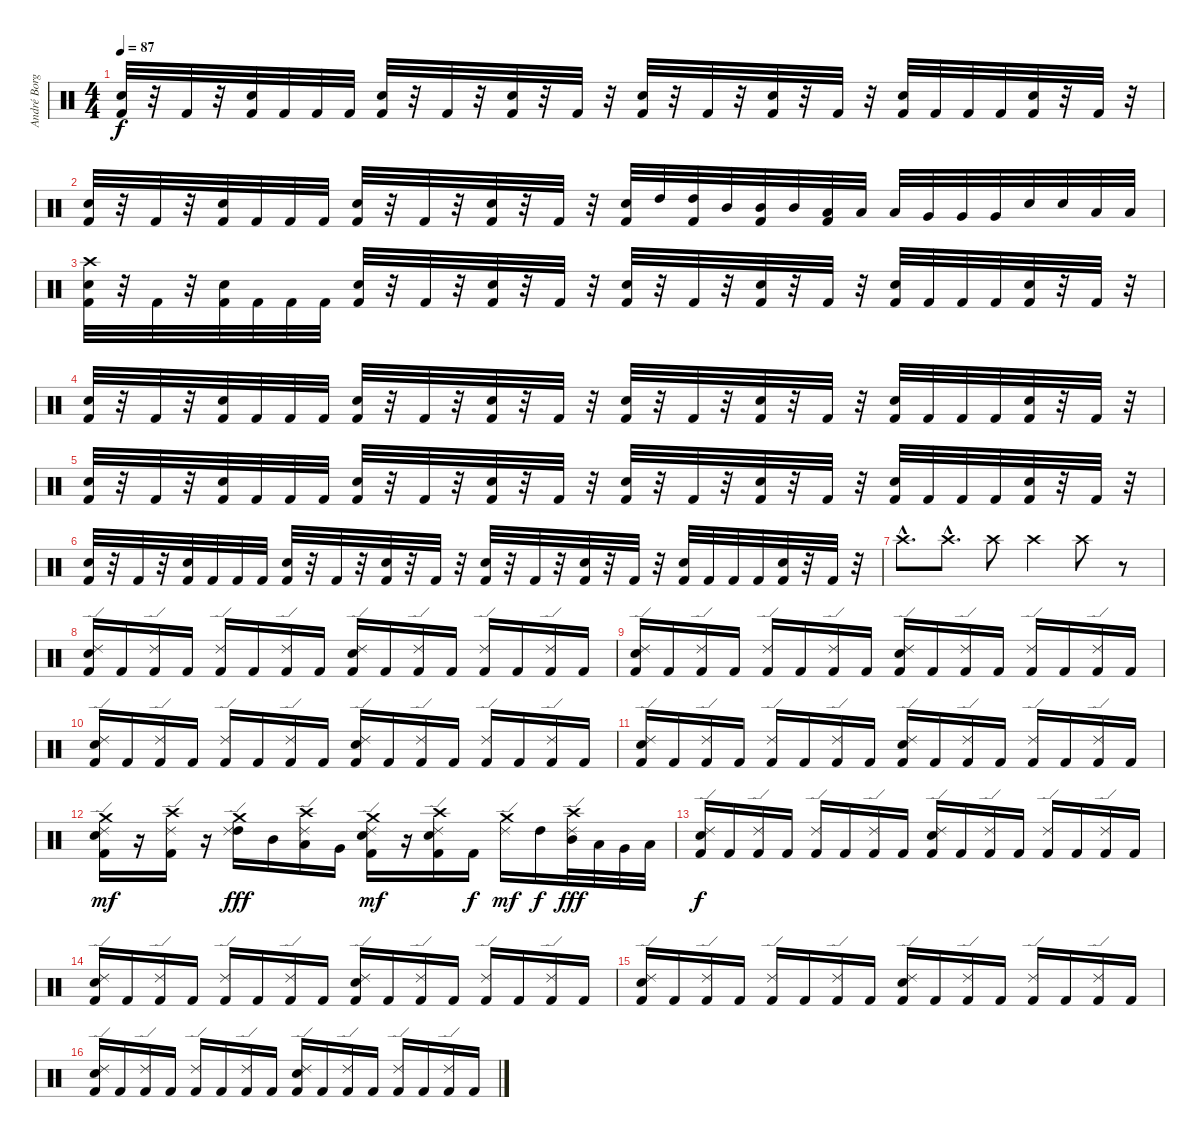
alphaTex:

\track ("André Borgman" "André Borg") {instrument percussion}
\staff {score}
\articulation defaults
\ts (4 4)
\tempo 87
\clef neutral
\ks c
("Electric Snare (hit)" "Kick (hit) 2").32{dy f} r.32 "Kick (hit) 2".32 r.32 ("Electric Snare (hit)" "Kick (hit) 2").32 "Kick (hit) 2".32 "Kick (hit) 2".32 "Kick (hit) 2".32 ("Electric Snare (hit)" "Kick (hit) 2").32 r.32 "Kick (hit) 2".32 r.32 ("Electric Snare (hit)" "Kick (hit) 2").32 r.32 "Kick (hit) 2".32 r.32 ("Electric Snare (hit)" "Kick (hit) 2").32 r.32 "Kick (hit) 2".32 r.32 ("Electric Snare (hit)" "Kick (hit) 2").32 r.32 "Kick (hit) 2".32 r.32 ("Electric Snare (hit)" "Kick (hit) 2").32 "Kick (hit) 2".32 "Kick (hit) 2".32 "Kick (hit) 2".32 ("Electric Snare (hit)" "Kick (hit) 2").32 r.32 "Kick (hit) 2".32 r.32 |
("Electric Snare (hit)" "Kick (hit) 2").32 r.32 "Kick (hit) 2".32 r.32 ("Electric Snare (hit)" "Kick (hit) 2").32 "Kick (hit) 2".32 "Kick (hit) 2".32 "Kick (hit) 2".32 ("Electric Snare (hit)" "Kick (hit) 2").32 r.32 "Kick (hit) 2".32 r.32 ("Electric Snare (hit)" "Kick (hit) 2").32 r.32 "Kick (hit) 2".32 r.32 ("Electric Snare (hit)" "Kick (hit) 2").32 "High Tom (hit)".32 ("High Tom (hit)" "Kick (hit) 2").32 "Mid Tom (hit)".32 ("Mid Tom (hit)" "Kick (hit) 2").32 "Mid Tom (hit)".32 ("Low Tom (hit)" "Kick (hit) 2").32 "Low Tom (hit)".32 "Low Tom (hit)".32 "Very Low Tom (hit)".32 "Very Low Tom (hit)".32 "Very Low Tom (hit)".32 "Electric Snare (hit)".32 "Electric Snare (hit)".32 "Low Floor Tom (hit)".32 "Low Floor Tom (hit)".32 |
("Crash high (hit)" "Electric Snare (hit)" "Kick (hit) 2").32 r.32 "Kick (hit) 2".32 r.32 ("Electric Snare (hit)" "Kick (hit) 2").32 "Kick (hit) 2".32 "Kick (hit) 2".32 "Kick (hit) 2".32 ("Electric Snare (hit)" "Kick (hit) 2").32 r.32 "Kick (hit) 2".32 r.32 ("Electric Snare (hit)" "Kick (hit) 2").32 r.32 "Kick (hit) 2".32 r.32 ("Electric Snare (hit)" "Kick (hit) 2").32 r.32 "Kick (hit) 2".32 r.32 ("Electric Snare (hit)" "Kick (hit) 2").32 r.32 "Kick (hit) 2".32 r.32 ("Electric Snare (hit)" "Kick (hit) 2").32 "Kick (hit) 2".32 "Kick (hit) 2".32 "Kick (hit) 2".32 ("Electric Snare (hit)" "Kick (hit) 2").32 r.32 "Kick (hit) 2".32 r.32 |
("Electric Snare (hit)" "Kick (hit) 2").32 r.32 "Kick (hit) 2".32 r.32 ("Electric Snare (hit)" "Kick (hit) 2").32 "Kick (hit) 2".32 "Kick (hit) 2".32 "Kick (hit) 2".32 ("Electric Snare (hit)" "Kick (hit) 2").32 r.32 "Kick (hit) 2".32 r.32 ("Electric Snare (hit)" "Kick (hit) 2").32 r.32 "Kick (hit) 2".32 r.32 ("Electric Snare (hit)" "Kick (hit) 2").32 r.32 "Kick (hit) 2".32 r.32 ("Electric Snare (hit)" "Kick (hit) 2").32 r.32 "Kick (hit) 2".32 r.32 ("Electric Snare (hit)" "Kick (hit) 2").32 "Kick (hit) 2".32 "Kick (hit) 2".32 "Kick (hit) 2".32 ("Electric Snare (hit)" "Kick (hit) 2").32 r.32 "Kick (hit) 2".32 r.32 |
("Electric Snare (hit)" "Kick (hit) 2").32 r.32 "Kick (hit) 2".32 r.32 ("Electric Snare (hit)" "Kick (hit) 2").32 "Kick (hit) 2".32 "Kick (hit) 2".32 "Kick (hit) 2".32 ("Electric Snare (hit)" "Kick (hit) 2").32 r.32 "Kick (hit) 2".32 r.32 ("Electric Snare (hit)" "Kick (hit) 2").32 r.32 "Kick (hit) 2".32 r.32 ("Electric Snare (hit)" "Kick (hit) 2").32 r.32 "Kick (hit) 2".32 r.32 ("Electric Snare (hit)" "Kick (hit) 2").32 r.32 "Kick (hit) 2".32 r.32 ("Electric Snare (hit)" "Kick (hit) 2").32 "Kick (hit) 2".32 "Kick (hit) 2".32 "Kick (hit) 2".32 ("Electric Snare (hit)" "Kick (hit) 2").32 r.32 "Kick (hit) 2".32 r.32 |
("Electric Snare (hit)" "Kick (hit) 2").32 r.32 "Kick (hit) 2".32 r.32 ("Electric Snare (hit)" "Kick (hit) 2").32 "Kick (hit) 2".32 "Kick (hit) 2".32 "Kick (hit) 2".32 ("Electric Snare (hit)" "Kick (hit) 2").32 r.32 "Kick (hit) 2".32 r.32 ("Electric Snare (hit)" "Kick (hit) 2").32 r.32 "Kick (hit) 2".32 r.32 ("Electric Snare (hit)" "Kick (hit) 2").32 r.32 "Kick (hit) 2".32 r.32 ("Electric Snare (hit)" "Kick (hit) 2").32 r.32 "Kick (hit) 2".32 r.32 ("Electric Snare (hit)" "Kick (hit) 2").32 "Kick (hit) 2".32 "Kick (hit) 2".32 "Kick (hit) 2".32 ("Electric Snare (hit)" "Kick (hit) 2").32 r.32 "Kick (hit) 2".32 r.32 |
"Crash high (hit)"{hac}.8{d} "Crash high (hit)"{hac}.8{d} "Crash high (hit)".8 "Crash high (hit)".4 "Crash high (hit)".8 r.8 |
("Electric Snare (hit)" "Kick (hit) 2" "Ride (edge) 2").16 "Kick (hit) 2".16 ("Kick (hit) 2" "Ride (edge) 2").16 "Kick (hit) 2".16 ("Kick (hit) 2" "Ride (edge) 2").16 "Kick (hit) 2".16 ("Kick (hit) 2" "Ride (edge) 2").16 "Kick (hit) 2".16 ("Electric Snare (hit)" "Kick (hit) 2" "Ride (edge) 2").16 "Kick (hit) 2".16 ("Kick (hit) 2" "Ride (edge) 2").16 "Kick (hit) 2".16 ("Kick (hit) 2" "Ride (edge) 2").16 "Kick (hit) 2".16 ("Kick (hit) 2" "Ride (edge) 2").16 "Kick (hit) 2".16 |
("Electric Snare (hit)" "Kick (hit) 2" "Ride (edge) 2").16 "Kick (hit) 2".16 ("Kick (hit) 2" "Ride (edge) 2").16 "Kick (hit) 2".16 ("Kick (hit) 2" "Ride (edge) 2").16 "Kick (hit) 2".16 ("Kick (hit) 2" "Ride (edge) 2").16 "Kick (hit) 2".16 ("Electric Snare (hit)" "Kick (hit) 2" "Ride (edge) 2").16 "Kick (hit) 2".16 ("Kick (hit) 2" "Ride (edge) 2").16 "Kick (hit) 2".16 ("Kick (hit) 2" "Ride (edge) 2").16 "Kick (hit) 2".16 ("Kick (hit) 2" "Ride (edge) 2").16 "Kick (hit) 2".16 |
("Electric Snare (hit)" "Kick (hit) 2" "Ride (edge) 2").16 "Kick (hit) 2".16 ("Kick (hit) 2" "Ride (edge) 2").16 "Kick (hit) 2".16 ("Kick (hit) 2" "Ride (edge) 2").16 "Kick (hit) 2".16 ("Kick (hit) 2" "Ride (edge) 2").16 "Kick (hit) 2".16 ("Electric Snare (hit)" "Kick (hit) 2" "Ride (edge) 2").16 "Kick (hit) 2".16 ("Kick (hit) 2" "Ride (edge) 2").16 "Kick (hit) 2".16 ("Kick (hit) 2" "Ride (edge) 2").16 "Kick (hit) 2".16 ("Kick (hit) 2" "Ride (edge) 2").16 "Kick (hit) 2".16 |
("Electric Snare (hit)" "Kick (hit) 2" "Ride (edge) 2").16 "Kick (hit) 2".16 ("Kick (hit) 2" "Ride (edge) 2").16 "Kick (hit) 2".16 ("Kick (hit) 2" "Ride (edge) 2").16 "Kick (hit) 2".16 ("Kick (hit) 2" "Ride (edge) 2").16 "Kick (hit) 2".16 ("Electric Snare (hit)" "Kick (hit) 2" "Ride (edge) 2").16 "Kick (hit) 2".16 ("Kick (hit) 2" "Ride (edge) 2").16 "Kick (hit) 2".16 ("Kick (hit) 2" "Ride (edge) 2").16 "Kick (hit) 2".16 ("Kick (hit) 2" "Ride (edge) 2").16 "Kick (hit) 2".16 |
("Crash medium (hit)" "Electric Snare (hit)" "Kick (hit) 2" "Ride (edge) 2").16{dy mf} r.16 ("Crash high (hit)" "Kick (hit) 2" "Ride (edge) 2").16 r.16 ("Crash medium (hit)" "High Tom (hit)" "Ride (edge) 2").16{dy fff} "Mid Tom (hit)".16 ("Crash high (hit)" "Low Tom (hit)" "Ride (edge) 2").16 "Very Low Tom (hit)".16 ("Crash medium (hit)" "Electric Snare (hit)" "Kick (hit) 2" "Ride (edge) 2").16{dy mf} r.16 ("Crash high (hit)" "Electric Snare (hit)" "Kick (hit) 2" "Ride (edge) 2").16 "Kick (hit) 2".16{dy f} ("Crash medium (hit)" "Ride (edge) 2").16{dy mf} "High Tom (hit)".16{dy f} ("Crash high (hit)" "Mid Tom (hit)" "Ride (edge) 2").32{dy fff} "Low Tom (hit)".32 "Very Low Tom (hit)".32 "Low Floor Tom (hit)".32 |
("Electric Snare (hit)" "Kick (hit) 2" "Ride (edge) 2").16{dy f} "Kick (hit) 2".16 ("Kick (hit) 2" "Ride (edge) 2").16 "Kick (hit) 2".16 ("Kick (hit) 2" "Ride (edge) 2").16 "Kick (hit) 2".16 ("Kick (hit) 2" "Ride (edge) 2").16 "Kick (hit) 2".16 ("Electric Snare (hit)" "Kick (hit) 2" "Ride (edge) 2").16 "Kick (hit) 2".16 ("Kick (hit) 2" "Ride (edge) 2").16 "Kick (hit) 2".16 ("Kick (hit) 2" "Ride (edge) 2").16 "Kick (hit) 2".16 ("Kick (hit) 2" "Ride (edge) 2").16 "Kick (hit) 2".16 |
("Electric Snare (hit)" "Kick (hit) 2" "Ride (edge) 2").16 "Kick (hit) 2".16 ("Kick (hit) 2" "Ride (edge) 2").16 "Kick (hit) 2".16 ("Kick (hit) 2" "Ride (edge) 2").16 "Kick (hit) 2".16 ("Kick (hit) 2" "Ride (edge) 2").16 "Kick (hit) 2".16 ("Electric Snare (hit)" "Kick (hit) 2" "Ride (edge) 2").16 "Kick (hit) 2".16 ("Kick (hit) 2" "Ride (edge) 2").16 "Kick (hit) 2".16 ("Kick (hit) 2" "Ride (edge) 2").16 "Kick (hit) 2".16 ("Kick (hit) 2" "Ride (edge) 2").16 "Kick (hit) 2".16 |
("Electric Snare (hit)" "Kick (hit) 2" "Ride (edge) 2").16 "Kick (hit) 2".16 ("Kick (hit) 2" "Ride (edge) 2").16 "Kick (hit) 2".16 ("Kick (hit) 2" "Ride (edge) 2").16 "Kick (hit) 2".16 ("Kick (hit) 2" "Ride (edge) 2").16 "Kick (hit) 2".16 ("Electric Snare (hit)" "Kick (hit) 2" "Ride (edge) 2").16 "Kick (hit) 2".16 ("Kick (hit) 2" "Ride (edge) 2").16 "Kick (hit) 2".16 ("Kick (hit) 2" "Ride (edge) 2").16 "Kick (hit) 2".16 ("Kick (hit) 2" "Ride (edge) 2").16 "Kick (hit) 2".16 |
("Electric Snare (hit)" "Kick (hit) 2" "Ride (edge) 2").16 "Kick (hit) 2".16 ("Kick (hit) 2" "Ride (edge) 2").16 "Kick (hit) 2".16 ("Kick (hit) 2" "Ride (edge) 2").16 "Kick (hit) 2".16 ("Kick (hit) 2" "Ride (edge) 2").16 "Kick (hit) 2".16 ("Electric Snare (hit)" "Kick (hit) 2" "Ride (edge) 2").16 "Kick (hit) 2".16 ("Kick (hit) 2" "Ride (edge) 2").16 "Kick (hit) 2".16 ("Kick (hit) 2" "Ride (edge) 2").16 "Kick (hit) 2".16 ("Kick (hit) 2" "Ride (edge) 2").16 "Kick (hit) 2".16
